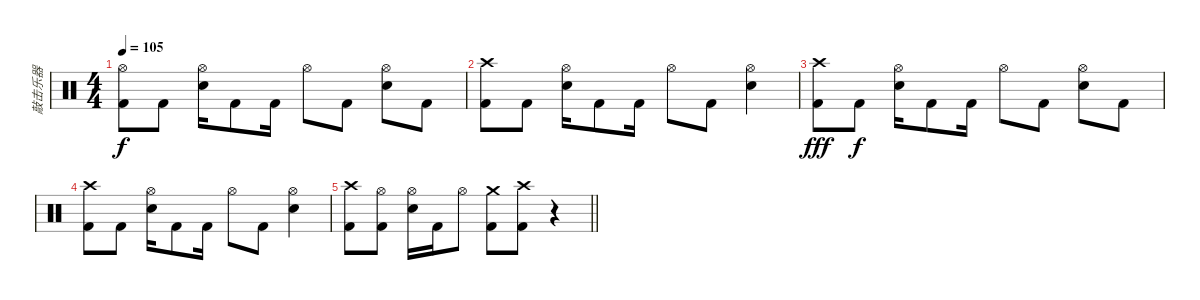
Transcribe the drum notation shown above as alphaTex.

\track ("敲击乐器" "敲击乐器") {instrument percussion}
\staff {score}
\articulation defaults
\ts (4 4)
\tempo 105
\clef neutral
\ks c
("Hi-Hat (open)" "Kick (hit) 2").8{dy f} "Kick (hit) 2".8 ("Hi-Hat (open)" "Electric Snare (hit)").16 "Kick (hit) 2".8 "Kick (hit) 2".16 "Hi-Hat (open)".8 "Kick (hit) 2".8 ("Hi-Hat (open)" "Electric Snare (hit)").8 "Kick (hit) 2".8 |
("Crash high (hit)" "Kick (hit) 2").8 "Kick (hit) 2".8 ("Hi-Hat (open)" "Electric Snare (hit)").16 "Kick (hit) 2".8 "Kick (hit) 2".16 "Hi-Hat (open)".8 "Kick (hit) 2".8 ("Hi-Hat (open)" "Electric Snare (hit)").4 |
("Crash high (hit)" "Kick (hit) 2").8{dy fff} "Kick (hit) 2".8{dy f} ("Hi-Hat (open)" "Electric Snare (hit)").16 "Kick (hit) 2".8 "Kick (hit) 2".16 "Hi-Hat (open)".8 "Kick (hit) 2".8 ("Hi-Hat (open)" "Electric Snare (hit)").8 "Kick (hit) 2".8 |
("Crash high (hit)" "Kick (hit) 2").8 "Kick (hit) 2".8 ("Hi-Hat (open)" "Electric Snare (hit)").16 "Kick (hit) 2".8 "Kick (hit) 2".16 "Hi-Hat (open)".8 "Kick (hit) 2".8 ("Hi-Hat (open)" "Electric Snare (hit)").4 |
\barLineRight lightlight
("Crash high (hit)" "Kick (hit) 2").8 ("Hi-Hat (open)" "Kick (hit) 2").8 ("Hi-Hat (open)" "Electric Snare (hit)").16 "Kick (hit) 2".16 "Hi-Hat (open)".8 ("Crash medium (hit)" "Kick (hit) 2").8 ("Crash high (hit)" "Kick (hit) 2").8 r.4
